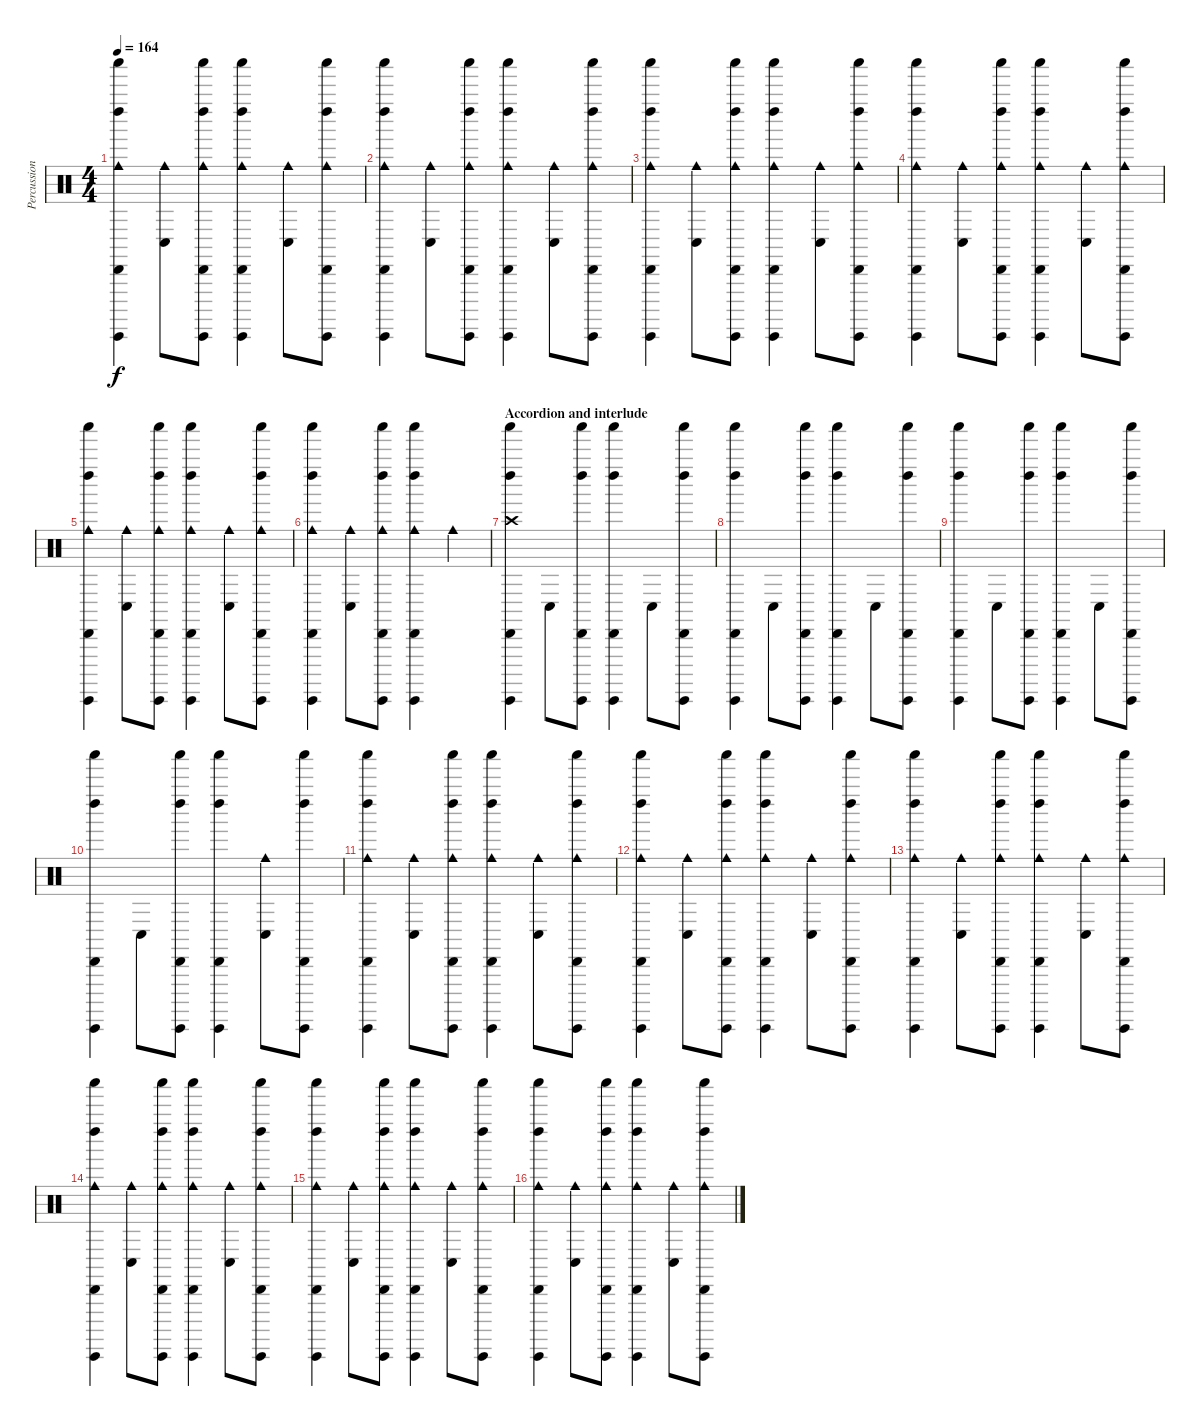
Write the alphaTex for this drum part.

\track ("Percussion" "Percussion") {instrument percussion}
\staff {score}
\articulation defaults
\ts (4 4)
\tempo 164
\clef neutral
\ks c
("Shaker (hit)" "Guiro (hit)" "Left Maraca (hit)" "Cabasa (hit)" "Cowbell medium (hit)").4{dy f} ("Conga low (hit)" "Cowbell medium (hit)").8 ("Shaker (hit)" "Guiro (hit)" "Left Maraca (hit)" "Cabasa (hit)" "Cowbell medium (hit)").8 ("Shaker (hit)" "Guiro (hit)" "Left Maraca (hit)" "Cabasa (hit)" "Cowbell medium (hit)").4 ("Conga low (hit)" "Cowbell medium (hit)").8 ("Shaker (hit)" "Guiro (hit)" "Left Maraca (hit)" "Cabasa (hit)" "Cowbell medium (hit)").8 |
("Shaker (hit)" "Guiro (hit)" "Left Maraca (hit)" "Cabasa (hit)" "Cowbell medium (hit)").4 ("Conga low (hit)" "Cowbell medium (hit)").8 ("Shaker (hit)" "Guiro (hit)" "Left Maraca (hit)" "Cabasa (hit)" "Cowbell medium (hit)").8 ("Shaker (hit)" "Guiro (hit)" "Left Maraca (hit)" "Cabasa (hit)" "Cowbell medium (hit)").4 ("Conga low (hit)" "Cowbell medium (hit)").8 ("Shaker (hit)" "Guiro (hit)" "Left Maraca (hit)" "Cabasa (hit)" "Cowbell medium (hit)").8 |
("Shaker (hit)" "Guiro (hit)" "Left Maraca (hit)" "Cabasa (hit)" "Cowbell medium (hit)").4 ("Conga low (hit)" "Cowbell medium (hit)").8 ("Shaker (hit)" "Guiro (hit)" "Left Maraca (hit)" "Cabasa (hit)" "Cowbell medium (hit)").8 ("Shaker (hit)" "Guiro (hit)" "Left Maraca (hit)" "Cabasa (hit)" "Cowbell medium (hit)").4 ("Conga low (hit)" "Cowbell medium (hit)").8 ("Shaker (hit)" "Guiro (hit)" "Left Maraca (hit)" "Cabasa (hit)" "Cowbell medium (hit)").8 |
("Shaker (hit)" "Guiro (hit)" "Left Maraca (hit)" "Cabasa (hit)" "Cowbell medium (hit)").4 ("Conga low (hit)" "Cowbell medium (hit)").8 ("Shaker (hit)" "Guiro (hit)" "Left Maraca (hit)" "Cabasa (hit)" "Cowbell medium (hit)").8 ("Shaker (hit)" "Guiro (hit)" "Left Maraca (hit)" "Cabasa (hit)" "Cowbell medium (hit)").4 ("Conga low (hit)" "Cowbell medium (hit)").8 ("Shaker (hit)" "Guiro (hit)" "Left Maraca (hit)" "Cabasa (hit)" "Cowbell medium (hit)").8 |
("Shaker (hit)" "Guiro (hit)" "Left Maraca (hit)" "Cabasa (hit)" "Cowbell medium (hit)").4 ("Conga low (hit)" "Cowbell medium (hit)").8 ("Shaker (hit)" "Guiro (hit)" "Left Maraca (hit)" "Cabasa (hit)" "Cowbell medium (hit)").8 ("Shaker (hit)" "Guiro (hit)" "Left Maraca (hit)" "Cabasa (hit)" "Cowbell medium (hit)").4 ("Conga low (hit)" "Cowbell medium (hit)").8 ("Shaker (hit)" "Guiro (hit)" "Left Maraca (hit)" "Cabasa (hit)" "Cowbell medium (hit)").8 |
("Shaker (hit)" "Guiro (hit)" "Left Maraca (hit)" "Cabasa (hit)" "Cowbell medium (hit)").4 ("Conga low (hit)" "Cowbell medium (hit)").8 ("Shaker (hit)" "Guiro (hit)" "Left Maraca (hit)" "Cabasa (hit)" "Cowbell medium (hit)").8 ("Shaker (hit)" "Guiro (hit)" "Left Maraca (hit)" "Cabasa (hit)" "Cowbell medium (hit)").4 "Cowbell medium (hit)".4 |
\section ("" "Accordion and interlude")
("Shaker (hit)" "Guiro (hit)" "Left Maraca (hit)" "Cabasa (hit)" "Crash high (hit)").4 "Conga low (hit)".8 ("Shaker (hit)" "Guiro (hit)" "Left Maraca (hit)" "Cabasa (hit)").8 ("Shaker (hit)" "Guiro (hit)" "Left Maraca (hit)" "Cabasa (hit)").4 "Conga low (hit)".8 ("Shaker (hit)" "Guiro (hit)" "Left Maraca (hit)" "Cabasa (hit)").8 |
("Shaker (hit)" "Guiro (hit)" "Left Maraca (hit)" "Cabasa (hit)").4 "Conga low (hit)".8 ("Shaker (hit)" "Guiro (hit)" "Left Maraca (hit)" "Cabasa (hit)").8 ("Shaker (hit)" "Guiro (hit)" "Left Maraca (hit)" "Cabasa (hit)").4 "Conga low (hit)".8 ("Shaker (hit)" "Guiro (hit)" "Left Maraca (hit)" "Cabasa (hit)").8 |
("Shaker (hit)" "Guiro (hit)" "Left Maraca (hit)" "Cabasa (hit)").4 "Conga low (hit)".8 ("Shaker (hit)" "Guiro (hit)" "Left Maraca (hit)" "Cabasa (hit)").8 ("Shaker (hit)" "Guiro (hit)" "Left Maraca (hit)" "Cabasa (hit)").4 "Conga low (hit)".8 ("Shaker (hit)" "Guiro (hit)" "Left Maraca (hit)" "Cabasa (hit)").8 |
("Shaker (hit)" "Guiro (hit)" "Left Maraca (hit)" "Cabasa (hit)").4 "Conga low (hit)".8 ("Shaker (hit)" "Guiro (hit)" "Left Maraca (hit)" "Cabasa (hit)").8 ("Shaker (hit)" "Guiro (hit)" "Left Maraca (hit)" "Cabasa (hit)").4 ("Conga low (hit)" "Cowbell medium (hit)").8 ("Shaker (hit)" "Guiro (hit)" "Left Maraca (hit)" "Cabasa (hit)").8 |
("Shaker (hit)" "Guiro (hit)" "Left Maraca (hit)" "Cabasa (hit)" "Cowbell medium (hit)").4 ("Conga low (hit)" "Cowbell medium (hit)").8 ("Shaker (hit)" "Guiro (hit)" "Left Maraca (hit)" "Cabasa (hit)" "Cowbell medium (hit)").8 ("Shaker (hit)" "Guiro (hit)" "Left Maraca (hit)" "Cabasa (hit)" "Cowbell medium (hit)").4 ("Conga low (hit)" "Cowbell medium (hit)").8 ("Shaker (hit)" "Guiro (hit)" "Left Maraca (hit)" "Cabasa (hit)" "Cowbell medium (hit)").8 |
("Shaker (hit)" "Guiro (hit)" "Left Maraca (hit)" "Cabasa (hit)" "Cowbell medium (hit)").4 ("Conga low (hit)" "Cowbell medium (hit)").8 ("Shaker (hit)" "Guiro (hit)" "Left Maraca (hit)" "Cabasa (hit)" "Cowbell medium (hit)").8 ("Shaker (hit)" "Guiro (hit)" "Left Maraca (hit)" "Cabasa (hit)" "Cowbell medium (hit)").4 ("Conga low (hit)" "Cowbell medium (hit)").8 ("Shaker (hit)" "Guiro (hit)" "Left Maraca (hit)" "Cabasa (hit)" "Cowbell medium (hit)").8 |
("Shaker (hit)" "Guiro (hit)" "Left Maraca (hit)" "Cabasa (hit)" "Cowbell medium (hit)").4 ("Conga low (hit)" "Cowbell medium (hit)").8 ("Shaker (hit)" "Guiro (hit)" "Left Maraca (hit)" "Cabasa (hit)" "Cowbell medium (hit)").8 ("Shaker (hit)" "Guiro (hit)" "Left Maraca (hit)" "Cabasa (hit)" "Cowbell medium (hit)").4 ("Conga low (hit)" "Cowbell medium (hit)").8 ("Shaker (hit)" "Guiro (hit)" "Left Maraca (hit)" "Cabasa (hit)" "Cowbell medium (hit)").8 |
("Shaker (hit)" "Guiro (hit)" "Left Maraca (hit)" "Cabasa (hit)" "Cowbell medium (hit)").4 ("Conga low (hit)" "Cowbell medium (hit)").8 ("Shaker (hit)" "Guiro (hit)" "Left Maraca (hit)" "Cabasa (hit)" "Cowbell medium (hit)").8 ("Shaker (hit)" "Guiro (hit)" "Left Maraca (hit)" "Cabasa (hit)" "Cowbell medium (hit)").4 ("Conga low (hit)" "Cowbell medium (hit)").8 ("Shaker (hit)" "Guiro (hit)" "Left Maraca (hit)" "Cabasa (hit)" "Cowbell medium (hit)").8 |
("Shaker (hit)" "Guiro (hit)" "Left Maraca (hit)" "Cabasa (hit)" "Cowbell medium (hit)").4 ("Conga low (hit)" "Cowbell medium (hit)").8 ("Shaker (hit)" "Guiro (hit)" "Left Maraca (hit)" "Cabasa (hit)" "Cowbell medium (hit)").8 ("Shaker (hit)" "Guiro (hit)" "Left Maraca (hit)" "Cabasa (hit)" "Cowbell medium (hit)").4 ("Conga low (hit)" "Cowbell medium (hit)").8 ("Shaker (hit)" "Guiro (hit)" "Left Maraca (hit)" "Cabasa (hit)" "Cowbell medium (hit)").8 |
("Shaker (hit)" "Guiro (hit)" "Left Maraca (hit)" "Cabasa (hit)" "Cowbell medium (hit)").4 ("Conga low (hit)" "Cowbell medium (hit)").8 ("Shaker (hit)" "Guiro (hit)" "Left Maraca (hit)" "Cabasa (hit)" "Cowbell medium (hit)").8 ("Shaker (hit)" "Guiro (hit)" "Left Maraca (hit)" "Cabasa (hit)" "Cowbell medium (hit)").4 ("Conga low (hit)" "Cowbell medium (hit)").8 ("Shaker (hit)" "Guiro (hit)" "Left Maraca (hit)" "Cabasa (hit)" "Cowbell medium (hit)").8
